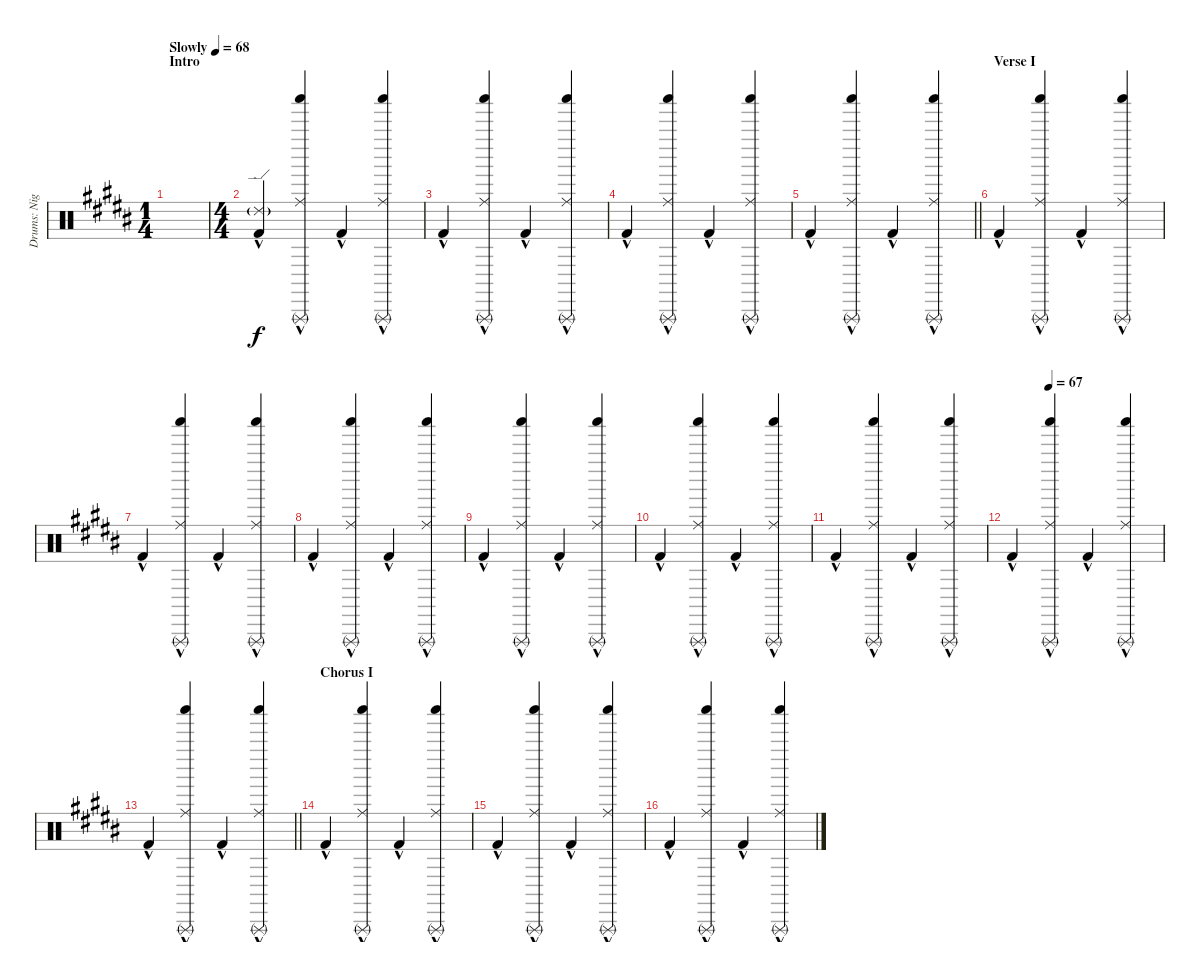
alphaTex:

\track ("Drums: Nigel" "Drums: Nig") {instrument percussion}
\staff {score}
\articulation defaults
\ts (1 4)
\section ("" "Intro")
\tempo (68 "Slowly")
\clef neutral
\ks b
|
\ts (4 4)
("Ride (edge) 2"{g} "Kick (hit) 2"{hac}).4 ("Ride (middle)"{hac} "Shaker (hit)"{hac} "Triangle (rnute)"{hac}).4 "Kick (hit) 2"{hac}.4 ("Ride (middle)"{hac} "Shaker (hit)"{hac} "Triangle (rnute)"{hac}).4 |
"Kick (hit) 2"{hac}.4 ("Ride (middle)"{hac} "Shaker (hit)"{hac} "Triangle (rnute)"{hac}).4 "Kick (hit) 2"{hac}.4 ("Ride (middle)"{hac} "Shaker (hit)"{hac} "Triangle (rnute)"{hac}).4 |
"Kick (hit) 2"{hac}.4 ("Ride (middle)"{hac} "Shaker (hit)"{hac} "Triangle (rnute)"{hac}).4 "Kick (hit) 2"{hac}.4 ("Ride (middle)"{hac} "Shaker (hit)"{hac} "Triangle (rnute)"{hac}).4 |
\barLineRight lightlight "Kick (hit) 2"{hac}.4
("Ride (middle)"{hac} "Shaker (hit)"{hac} "Triangle (rnute)"{hac}).4 "Kick (hit) 2"{hac}.4 ("Ride (middle)"{hac} "Shaker (hit)"{hac} "Triangle (rnute)"{hac}).4 |
\section ("" "Verse I")
"Kick (hit) 2"{hac}.4 ("Ride (middle)"{hac} "Shaker (hit)"{hac} "Triangle (rnute)"{hac}).4 "Kick (hit) 2"{hac}.4 ("Ride (middle)"{hac} "Shaker (hit)"{hac} "Triangle (rnute)"{hac}).4 |
"Kick (hit) 2"{hac}.4 ("Ride (middle)"{hac} "Shaker (hit)"{hac} "Triangle (rnute)"{hac}).4 "Kick (hit) 2"{hac}.4 ("Ride (middle)"{hac} "Shaker (hit)"{hac} "Triangle (rnute)"{hac}).4 |
"Kick (hit) 2"{hac}.4 ("Ride (middle)"{hac} "Shaker (hit)"{hac} "Triangle (rnute)"{hac}).4 "Kick (hit) 2"{hac}.4 ("Ride (middle)"{hac} "Shaker (hit)"{hac} "Triangle (rnute)"{hac}).4 |
"Kick (hit) 2"{hac}.4 ("Ride (middle)"{hac} "Shaker (hit)"{hac} "Triangle (rnute)"{hac}).4 "Kick (hit) 2"{hac}.4 ("Ride (middle)"{hac} "Shaker (hit)"{hac} "Triangle (rnute)"{hac}).4 |
"Kick (hit) 2"{hac}.4 ("Ride (middle)"{hac} "Shaker (hit)"{hac} "Triangle (rnute)"{hac}).4 "Kick (hit) 2"{hac}.4 ("Ride (middle)"{hac} "Shaker (hit)"{hac} "Triangle (rnute)"{hac}).4 |
"Kick (hit) 2"{hac}.4 ("Ride (middle)"{hac} "Shaker (hit)"{hac} "Triangle (rnute)"{hac}).4 "Kick (hit) 2"{hac}.4 ("Ride (middle)"{hac} "Shaker (hit)"{hac} "Triangle (rnute)"{hac}).4 |
\tempo (67 0.25)
"Kick (hit) 2"{hac}.4 ("Ride (middle)"{hac} "Shaker (hit)"{hac} "Triangle (rnute)"{hac}).4 "Kick (hit) 2"{hac}.4 ("Ride (middle)"{hac} "Shaker (hit)"{hac} "Triangle (rnute)"{hac}).4 |
\barLineRight lightlight "Kick (hit) 2"{hac}.4
("Ride (middle)"{hac} "Shaker (hit)"{hac} "Triangle (rnute)"{hac}).4 "Kick (hit) 2"{hac}.4 ("Ride (middle)"{hac} "Shaker (hit)"{hac} "Triangle (rnute)"{hac}).4 |
\section ("" "Chorus I")
"Kick (hit) 2"{hac}.4 ("Ride (middle)"{hac} "Shaker (hit)"{hac} "Triangle (rnute)"{hac}).4 "Kick (hit) 2"{hac}.4 ("Ride (middle)"{hac} "Shaker (hit)"{hac} "Triangle (rnute)"{hac}).4 |
"Kick (hit) 2"{hac}.4 ("Ride (middle)"{hac} "Shaker (hit)"{hac} "Triangle (rnute)"{hac}).4 "Kick (hit) 2"{hac}.4 ("Ride (middle)"{hac} "Shaker (hit)"{hac} "Triangle (rnute)"{hac}).4 |
"Kick (hit) 2"{hac}.4 ("Ride (middle)"{hac} "Shaker (hit)"{hac} "Triangle (rnute)"{hac}).4 "Kick (hit) 2"{hac}.4 ("Ride (middle)"{hac} "Shaker (hit)"{hac} "Triangle (rnute)"{hac}).4
